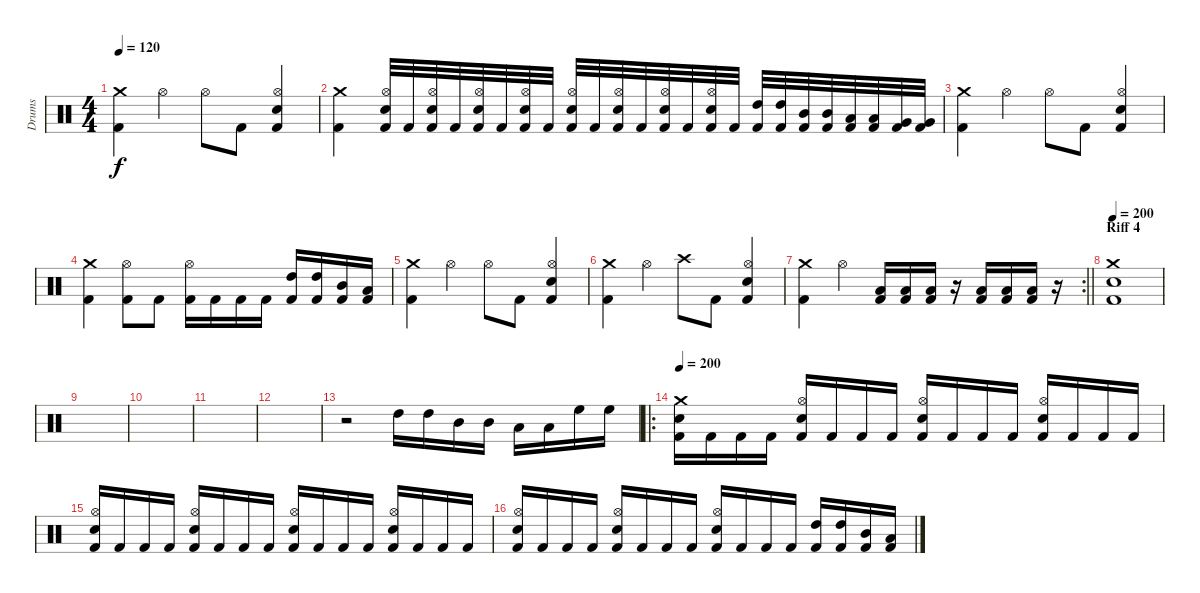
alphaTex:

\track ("Drums" "Drums") {instrument percussion}
\staff {score}
\articulation defaults
\ts (4 4)
\tempo 120
\clef neutral
\ks c
("Crash medium (hit)" "Kick (hit) 2").4{dy f} "Hi-Hat (open)".4 "Hi-Hat (open)".8 "Kick (hit) 2".8 ("Hi-Hat (open)" "Electric Snare (hit)" "Kick (hit) 2").4 |
("Crash medium (hit)" "Kick (hit) 2").4 ("Hi-Hat (open)" "Electric Snare (hit)" "Kick (hit) 2").32 "Kick (hit) 2".32 ("Hi-Hat (open)" "Electric Snare (hit)" "Kick (hit) 2").32 "Kick (hit) 2".32 ("Hi-Hat (open)" "Electric Snare (hit)" "Kick (hit) 2").32 "Kick (hit) 2".32 ("Hi-Hat (open)" "Electric Snare (hit)" "Kick (hit) 2").32 "Kick (hit) 2".32 ("Hi-Hat (open)" "Electric Snare (hit)" "Kick (hit) 2").32 "Kick (hit) 2".32 ("Hi-Hat (open)" "Electric Snare (hit)" "Kick (hit) 2").32 "Kick (hit) 2".32 ("Hi-Hat (open)" "Electric Snare (hit)" "Kick (hit) 2").32 "Kick (hit) 2".32 ("Hi-Hat (open)" "Electric Snare (hit)" "Kick (hit) 2").32 "Kick (hit) 2".32 ("High Tom (hit)" "Kick (hit) 2").32 ("High Tom (hit)" "Kick (hit) 2").32 ("Mid Tom (hit)" "Kick (hit) 2").32 ("Mid Tom (hit)" "Kick (hit) 2").32 ("Low Tom (hit)" "Kick (hit) 2").32 ("Low Tom (hit)" "Kick (hit) 2").32 ("Very Low Tom (hit)" "Kick (hit) 2").32 ("Very Low Tom (hit)" "Kick (hit) 2").32 |
("Crash medium (hit)" "Kick (hit) 2").4 "Hi-Hat (open)".4 "Hi-Hat (open)".8 "Kick (hit) 2".8 ("Hi-Hat (open)" "Electric Snare (hit)" "Kick (hit) 2").4 |
("Crash medium (hit)" "Kick (hit) 2").4 ("Hi-Hat (open)" "Kick (hit) 2").8 "Kick (hit) 2".8 ("Hi-Hat (open)" "Kick (hit) 2").16 "Kick (hit) 2".16 "Kick (hit) 2".16 "Kick (hit) 2".16 ("High Tom (hit)" "Kick (hit) 2").16 ("High Tom (hit)" "Kick (hit) 2").16 ("Mid Tom (hit)" "Kick (hit) 2").16 ("Low Tom (hit)" "Kick (hit) 2").16 |
("Crash medium (hit)" "Kick (hit) 2").4 "Hi-Hat (open)".4 "Hi-Hat (open)".8 "Kick (hit) 2".8 ("Hi-Hat (open)" "Electric Snare (hit)" "Kick (hit) 2").4 |
("Crash medium (hit)" "Kick (hit) 2").4 "Hi-Hat (open)".4 "Crash high (hit)".8 "Kick (hit) 2".8 ("Hi-Hat (open)" "Electric Snare (hit)" "Kick (hit) 2").4 |
\rc 2
\barLineRight lightlight
("Crash medium (hit)" "Kick (hit) 2").4 "Hi-Hat (open)".4 ("Low Tom (hit)" "Kick (hit) 2").16 ("Low Tom (hit)" "Kick (hit) 2").16 ("Low Tom (hit)" "Kick (hit) 2").16 r.16 ("Low Tom (hit)" "Kick (hit) 2").16 ("Low Tom (hit)" "Kick (hit) 2").16 ("Low Tom (hit)" "Kick (hit) 2").16 r.16 |
\section ("" "Riff 4")
\tempo 200
("Crash medium (hit)" "Electric Snare (hit)" "Kick (hit) 2").1 |
|
|
|
|
r.2 "High Tom (hit)".16 "High Tom (hit)".16 "Mid Tom (hit)".16 "Mid Tom (hit)".16 "Low Tom (hit)".16 "Low Tom (hit)".16 "High Floor Tom (hit)".16 "High Floor Tom (hit)".16 |
\ro
\tempo 200
("Crash medium (hit)" "Electric Snare (hit)" "Kick (hit) 2").16 "Kick (hit) 2".16 "Kick (hit) 2".16 "Kick (hit) 2".16 ("Hi-Hat (open)" "Electric Snare (hit)" "Kick (hit) 2").16 "Kick (hit) 2".16 "Kick (hit) 2".16 "Kick (hit) 2".16 ("Hi-Hat (open)" "Electric Snare (hit)" "Kick (hit) 2").16 "Kick (hit) 2".16 "Kick (hit) 2".16 "Kick (hit) 2".16 ("Hi-Hat (open)" "Electric Snare (hit)" "Kick (hit) 2").16 "Kick (hit) 2".16 "Kick (hit) 2".16 "Kick (hit) 2".16 |
("Hi-Hat (open)" "Electric Snare (hit)" "Kick (hit) 2").16 "Kick (hit) 2".16 "Kick (hit) 2".16 "Kick (hit) 2".16 ("Hi-Hat (open)" "Electric Snare (hit)" "Kick (hit) 2").16 "Kick (hit) 2".16 "Kick (hit) 2".16 "Kick (hit) 2".16 ("Hi-Hat (open)" "Electric Snare (hit)" "Kick (hit) 2").16 "Kick (hit) 2".16 "Kick (hit) 2".16 "Kick (hit) 2".16 ("Hi-Hat (open)" "Electric Snare (hit)" "Kick (hit) 2").16 "Kick (hit) 2".16 "Kick (hit) 2".16 "Kick (hit) 2".16 |
("Hi-Hat (open)" "Electric Snare (hit)" "Kick (hit) 2").16 "Kick (hit) 2".16 "Kick (hit) 2".16 "Kick (hit) 2".16 ("Hi-Hat (open)" "Electric Snare (hit)" "Kick (hit) 2").16 "Kick (hit) 2".16 "Kick (hit) 2".16 "Kick (hit) 2".16 ("Hi-Hat (open)" "Electric Snare (hit)" "Kick (hit) 2").16 "Kick (hit) 2".16 "Kick (hit) 2".16 "Kick (hit) 2".16 ("High Tom (hit)" "Kick (hit) 2").16 ("High Tom (hit)" "Kick (hit) 2").16 ("Mid Tom (hit)" "Kick (hit) 2").16 ("Low Tom (hit)" "Kick (hit) 2").16
